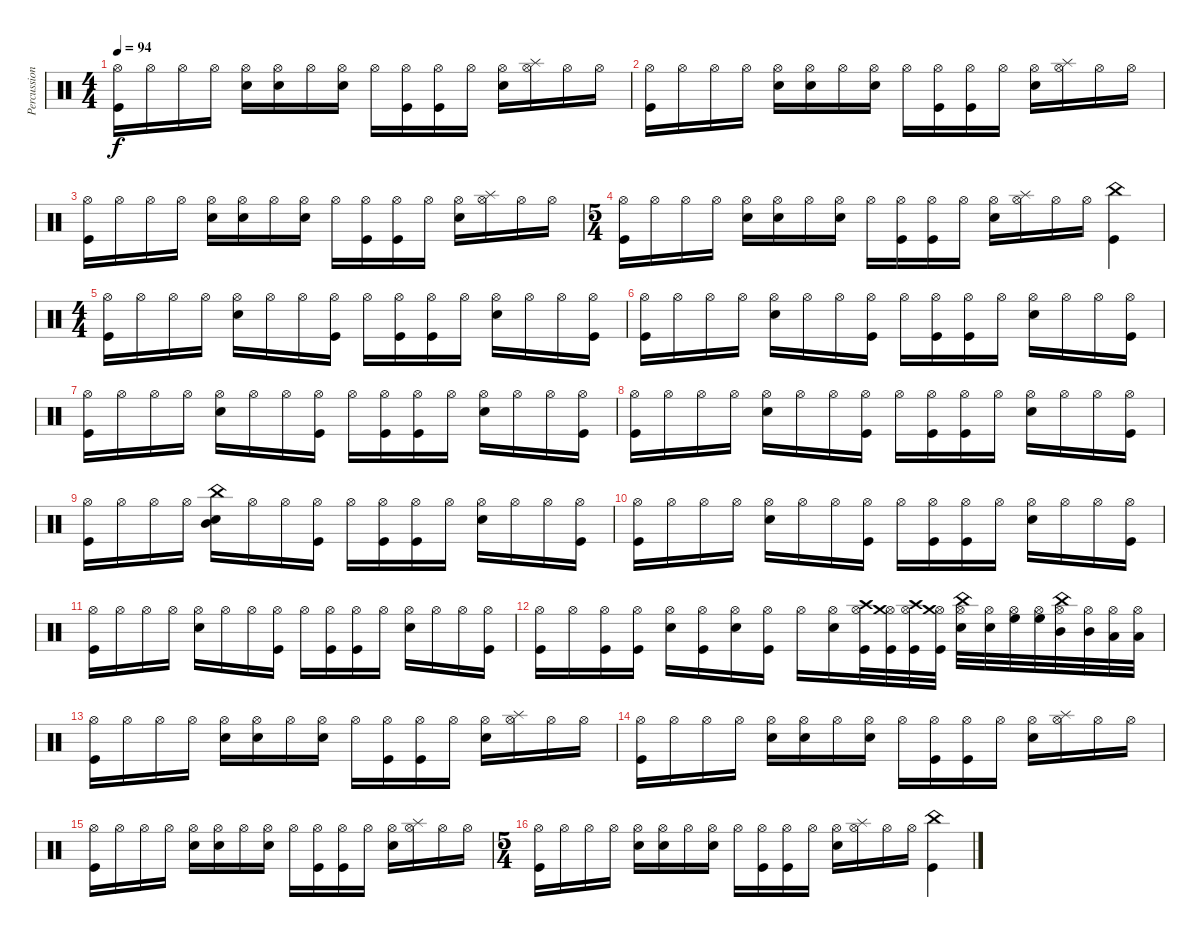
\track ("Percussion" "Percussion") {instrument percussion}
\staff {score}
\articulation defaults
\ts (4 4)
\tempo 94
\clef neutral
\ks c
("Hi-Hat (open)" "Kick (hit)").16{dy f} "Hi-Hat (open)".16 "Hi-Hat (open)".16 "Hi-Hat (open)".16 ("Hi-Hat (open)" "Electric Snare (hit)").16 ("Hi-Hat (open)" "Electric Snare (hit)").16 "Hi-Hat (open)".16 ("Hi-Hat (open)" "Electric Snare (hit)").16 "Hi-Hat (open)".16 ("Hi-Hat (open)" "Kick (hit)").16 ("Hi-Hat (open)" "Kick (hit)").16 "Hi-Hat (open)".16 ("Hi-Hat (open)" "Electric Snare (hit)").16 ("Hi-Hat (open)" "Splash (hit)").16 "Hi-Hat (open)".16 "Hi-Hat (open)".16 |
("Hi-Hat (open)" "Kick (hit)").16 "Hi-Hat (open)".16 "Hi-Hat (open)".16 "Hi-Hat (open)".16 ("Hi-Hat (open)" "Electric Snare (hit)").16 ("Hi-Hat (open)" "Electric Snare (hit)").16 "Hi-Hat (open)".16 ("Hi-Hat (open)" "Electric Snare (hit)").16 "Hi-Hat (open)".16 ("Hi-Hat (open)" "Kick (hit)").16 ("Hi-Hat (open)" "Kick (hit)").16 "Hi-Hat (open)".16 ("Hi-Hat (open)" "Electric Snare (hit)").16 ("Hi-Hat (open)" "Splash (hit)").16 "Hi-Hat (open)".16 "Hi-Hat (open)".16 |
("Hi-Hat (open)" "Kick (hit)").16 "Hi-Hat (open)".16 "Hi-Hat (open)".16 "Hi-Hat (open)".16 ("Hi-Hat (open)" "Electric Snare (hit)").16 ("Hi-Hat (open)" "Electric Snare (hit)").16 "Hi-Hat (open)".16 ("Hi-Hat (open)" "Electric Snare (hit)").16 "Hi-Hat (open)".16 ("Hi-Hat (open)" "Kick (hit)").16 ("Hi-Hat (open)" "Kick (hit)").16 "Hi-Hat (open)".16 ("Hi-Hat (open)" "Electric Snare (hit)").16 ("Hi-Hat (open)" "Splash (hit)").16 "Hi-Hat (open)".16 "Hi-Hat (open)".16 |
\ts (5 4)
("Hi-Hat (open)" "Kick (hit)").16 "Hi-Hat (open)".16 "Hi-Hat (open)".16 "Hi-Hat (open)".16 ("Hi-Hat (open)" "Electric Snare (hit)").16 ("Hi-Hat (open)" "Electric Snare (hit)").16 "Hi-Hat (open)".16 ("Hi-Hat (open)" "Electric Snare (hit)").16 "Hi-Hat (open)".16 ("Hi-Hat (open)" "Kick (hit)").16 ("Hi-Hat (open)" "Kick (hit)").16 "Hi-Hat (open)".16 ("Hi-Hat (open)" "Electric Snare (hit)").16 ("Hi-Hat (open)" "Splash (hit)").16 "Hi-Hat (open)".16 "Hi-Hat (open)".16 ("China (hit)" "Kick (hit)").4 |
\ts (4 4)
("Hi-Hat (open)" "Kick (hit)").16 "Hi-Hat (open)".16 "Hi-Hat (open)".16 "Hi-Hat (open)".16 ("Hi-Hat (open)" "Electric Snare (hit)").16 "Hi-Hat (open)".16 "Hi-Hat (open)".16 ("Hi-Hat (open)" "Kick (hit)").16 "Hi-Hat (open)".16 ("Hi-Hat (open)" "Kick (hit)").16 ("Hi-Hat (open)" "Kick (hit)").16 "Hi-Hat (open)".16 ("Hi-Hat (open)" "Electric Snare (hit)").16 "Hi-Hat (open)".16 "Hi-Hat (open)".16 ("Hi-Hat (open)" "Kick (hit)").16 |
("Hi-Hat (open)" "Kick (hit)").16 "Hi-Hat (open)".16 "Hi-Hat (open)".16 "Hi-Hat (open)".16 ("Hi-Hat (open)" "Electric Snare (hit)").16 "Hi-Hat (open)".16 "Hi-Hat (open)".16 ("Hi-Hat (open)" "Kick (hit)").16 "Hi-Hat (open)".16 ("Hi-Hat (open)" "Kick (hit)").16 ("Hi-Hat (open)" "Kick (hit)").16 "Hi-Hat (open)".16 ("Hi-Hat (open)" "Electric Snare (hit)").16 "Hi-Hat (open)".16 "Hi-Hat (open)".16 ("Hi-Hat (open)" "Kick (hit)").16 |
("Hi-Hat (open)" "Kick (hit)").16 "Hi-Hat (open)".16 "Hi-Hat (open)".16 "Hi-Hat (open)".16 ("Hi-Hat (open)" "Electric Snare (hit)").16 "Hi-Hat (open)".16 "Hi-Hat (open)".16 ("Hi-Hat (open)" "Kick (hit)").16 "Hi-Hat (open)".16 ("Hi-Hat (open)" "Kick (hit)").16 ("Hi-Hat (open)" "Kick (hit)").16 "Hi-Hat (open)".16 ("Hi-Hat (open)" "Electric Snare (hit)").16 "Hi-Hat (open)".16 "Hi-Hat (open)".16 ("Hi-Hat (open)" "Kick (hit)").16 |
("Hi-Hat (open)" "Kick (hit)").16 "Hi-Hat (open)".16 "Hi-Hat (open)".16 "Hi-Hat (open)".16 ("Hi-Hat (open)" "Electric Snare (hit)").16 "Hi-Hat (open)".16 "Hi-Hat (open)".16 ("Hi-Hat (open)" "Kick (hit)").16 "Hi-Hat (open)".16 ("Hi-Hat (open)" "Kick (hit)").16 ("Hi-Hat (open)" "Kick (hit)").16 "Hi-Hat (open)".16 ("Hi-Hat (open)" "Electric Snare (hit)").16 "Hi-Hat (open)".16 "Hi-Hat (open)".16 ("Hi-Hat (open)" "Kick (hit)").16 |
("Hi-Hat (open)" "Kick (hit)").16 "Hi-Hat (open)".16 "Hi-Hat (open)".16 "Hi-Hat (open)".16 ("China (hit)" "Electric Snare (hit)" "Mid Tom (hit)").16 "Hi-Hat (open)".16 "Hi-Hat (open)".16 ("Hi-Hat (open)" "Kick (hit)").16 "Hi-Hat (open)".16 ("Hi-Hat (open)" "Kick (hit)").16 ("Hi-Hat (open)" "Kick (hit)").16 "Hi-Hat (open)".16 ("Hi-Hat (open)" "Electric Snare (hit)").16 "Hi-Hat (open)".16 "Hi-Hat (open)".16 ("Hi-Hat (open)" "Kick (hit)").16 |
("Hi-Hat (open)" "Kick (hit)").16 "Hi-Hat (open)".16 "Hi-Hat (open)".16 "Hi-Hat (open)".16 ("Hi-Hat (open)" "Electric Snare (hit)").16 "Hi-Hat (open)".16 "Hi-Hat (open)".16 ("Hi-Hat (open)" "Kick (hit)").16 "Hi-Hat (open)".16 ("Hi-Hat (open)" "Kick (hit)").16 ("Hi-Hat (open)" "Kick (hit)").16 "Hi-Hat (open)".16 ("Hi-Hat (open)" "Electric Snare (hit)").16 "Hi-Hat (open)".16 "Hi-Hat (open)".16 ("Hi-Hat (open)" "Kick (hit)").16 |
("Hi-Hat (open)" "Kick (hit)").16 "Hi-Hat (open)".16 "Hi-Hat (open)".16 "Hi-Hat (open)".16 ("Hi-Hat (open)" "Electric Snare (hit)").16 "Hi-Hat (open)".16 "Hi-Hat (open)".16 ("Hi-Hat (open)" "Kick (hit)").16 "Hi-Hat (open)".16 ("Hi-Hat (open)" "Kick (hit)").16 ("Hi-Hat (open)" "Kick (hit)").16 "Hi-Hat (open)".16 ("Hi-Hat (open)" "Electric Snare (hit)").16 "Hi-Hat (open)".16 "Hi-Hat (open)".16 ("Hi-Hat (open)" "Kick (hit)").16 |
("Hi-Hat (open)" "Kick (hit)").16 "Hi-Hat (open)".16 ("Hi-Hat (open)" "Kick (hit)").16 ("Hi-Hat (open)" "Kick (hit)").16 ("Hi-Hat (open)" "Electric Snare (hit)").16 ("Hi-Hat (open)" "Kick (hit)").16 ("Hi-Hat (open)" "Electric Snare (hit)").16 ("Hi-Hat (open)" "Kick (hit)").16 "Hi-Hat (open)".16 ("Hi-Hat (open)" "Electric Snare (hit)").16 ("Hi-Hat (open)" "Kick (hit)" "Crash high (hit)").32 ("Hi-Hat (open)" "Kick (hit)" "Crash medium (hit)").32 ("Hi-Hat (open)" "Kick (hit)" "Crash high (hit)").32 ("Hi-Hat (open)" "Kick (hit)" "Crash medium (hit)").32 ("Hi-Hat (open)" "Electric Snare (hit)" "China (hit)").32 ("Hi-Hat (open)" "Electric Snare (hit)").32 ("Hi-Hat (open)" "High Floor Tom (hit)").32 ("Hi-Hat (open)" "High Floor Tom (hit)").32 ("Hi-Hat (open)" "Mid Tom (hit)" "China (hit)").32 ("Hi-Hat (open)" "Mid Tom (hit)").32 ("Hi-Hat (open)" "Low Tom (hit)").32 ("Hi-Hat (open)" "Low Tom (hit)").32 |
("Hi-Hat (open)" "Kick (hit)").16 "Hi-Hat (open)".16 "Hi-Hat (open)".16 "Hi-Hat (open)".16 ("Hi-Hat (open)" "Electric Snare (hit)").16 ("Hi-Hat (open)" "Electric Snare (hit)").16 "Hi-Hat (open)".16 ("Hi-Hat (open)" "Electric Snare (hit)").16 "Hi-Hat (open)".16 ("Hi-Hat (open)" "Kick (hit)").16 ("Hi-Hat (open)" "Kick (hit)").16 "Hi-Hat (open)".16 ("Hi-Hat (open)" "Electric Snare (hit)").16 ("Hi-Hat (open)" "Splash (hit)").16 "Hi-Hat (open)".16 "Hi-Hat (open)".16 |
("Hi-Hat (open)" "Kick (hit)").16 "Hi-Hat (open)".16 "Hi-Hat (open)".16 "Hi-Hat (open)".16 ("Hi-Hat (open)" "Electric Snare (hit)").16 ("Hi-Hat (open)" "Electric Snare (hit)").16 "Hi-Hat (open)".16 ("Hi-Hat (open)" "Electric Snare (hit)").16 "Hi-Hat (open)".16 ("Hi-Hat (open)" "Kick (hit)").16 ("Hi-Hat (open)" "Kick (hit)").16 "Hi-Hat (open)".16 ("Hi-Hat (open)" "Electric Snare (hit)").16 ("Hi-Hat (open)" "Splash (hit)").16 "Hi-Hat (open)".16 "Hi-Hat (open)".16 |
("Hi-Hat (open)" "Kick (hit)").16 "Hi-Hat (open)".16 "Hi-Hat (open)".16 "Hi-Hat (open)".16 ("Hi-Hat (open)" "Electric Snare (hit)").16 ("Hi-Hat (open)" "Electric Snare (hit)").16 "Hi-Hat (open)".16 ("Hi-Hat (open)" "Electric Snare (hit)").16 "Hi-Hat (open)".16 ("Hi-Hat (open)" "Kick (hit)").16 ("Hi-Hat (open)" "Kick (hit)").16 "Hi-Hat (open)".16 ("Hi-Hat (open)" "Electric Snare (hit)").16 ("Hi-Hat (open)" "Splash (hit)").16 "Hi-Hat (open)".16 "Hi-Hat (open)".16 |
\ts (5 4)
("Hi-Hat (open)" "Kick (hit)").16 "Hi-Hat (open)".16 "Hi-Hat (open)".16 "Hi-Hat (open)".16 ("Hi-Hat (open)" "Electric Snare (hit)").16 ("Hi-Hat (open)" "Electric Snare (hit)").16 "Hi-Hat (open)".16 ("Hi-Hat (open)" "Electric Snare (hit)").16 "Hi-Hat (open)".16 ("Hi-Hat (open)" "Kick (hit)").16 ("Hi-Hat (open)" "Kick (hit)").16 "Hi-Hat (open)".16 ("Hi-Hat (open)" "Electric Snare (hit)").16 ("Hi-Hat (open)" "Splash (hit)").16 "Hi-Hat (open)".16 "Hi-Hat (open)".16 ("China (hit)" "Kick (hit)").4
